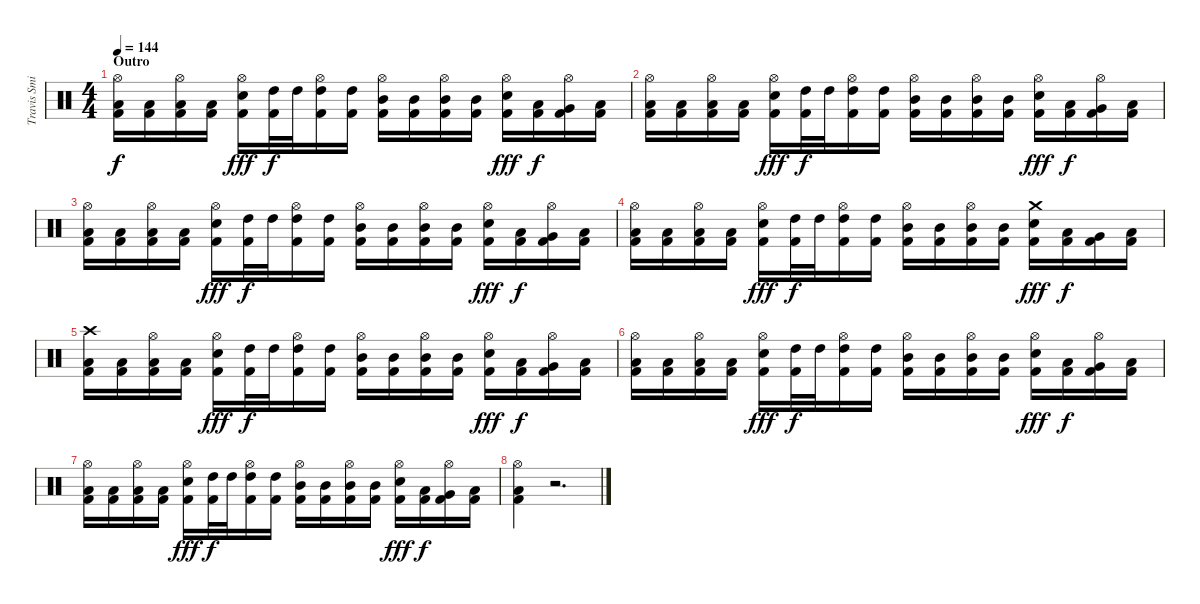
\track ("Travis Smith" "Travis Smi") {instrument percussion}
\staff {score}
\articulation defaults
\ts (4 4)
\section ("" "Outro")
\tempo 144
\clef neutral
\ks c
("Hi-Hat (open)" "Low Tom (hit)" "Kick (hit) 2").16{dy f} ("Low Tom (hit)" "Kick (hit) 2").16 ("Hi-Hat (open)" "Low Tom (hit)" "Kick (hit) 2").16 ("Low Tom (hit)" "Kick (hit) 2").16 ("Hi-Hat (open)" "Electric Snare (hit)" "Kick (hit) 2").16{dy fff} ("High Tom (hit)" "Kick (hit) 2").32{dy f} "High Tom (hit)".32 ("Hi-Hat (open)" "High Tom (hit)" "Kick (hit) 2").16 ("High Tom (hit)" "Kick (hit) 2").16 ("Hi-Hat (open)" "Mid Tom (hit)" "Kick (hit) 2").16 ("Mid Tom (hit)" "Kick (hit) 2").16 ("Hi-Hat (open)" "Mid Tom (hit)" "Kick (hit) 2").16 ("Mid Tom (hit)" "Kick (hit) 2").16 ("Hi-Hat (open)" "Electric Snare (hit)" "Kick (hit) 2").16{dy fff} ("Low Tom (hit)" "Kick (hit) 2").16{dy f} ("Hi-Hat (open)" "Very Low Tom (hit)" "Kick (hit) 2").16 ("Low Floor Tom (hit)" "Kick (hit) 2").16 |
("Hi-Hat (open)" "Low Tom (hit)" "Kick (hit) 2").16 ("Low Tom (hit)" "Kick (hit) 2").16 ("Hi-Hat (open)" "Low Tom (hit)" "Kick (hit) 2").16 ("Low Tom (hit)" "Kick (hit) 2").16 ("Hi-Hat (open)" "Electric Snare (hit)" "Kick (hit) 2").16{dy fff} ("High Tom (hit)" "Kick (hit) 2").32{dy f} "High Tom (hit)".32 ("Hi-Hat (open)" "High Tom (hit)" "Kick (hit) 2").16 ("High Tom (hit)" "Kick (hit) 2").16 ("Hi-Hat (open)" "Mid Tom (hit)" "Kick (hit) 2").16 ("Mid Tom (hit)" "Kick (hit) 2").16 ("Hi-Hat (open)" "Mid Tom (hit)" "Kick (hit) 2").16 ("Mid Tom (hit)" "Kick (hit) 2").16 ("Hi-Hat (open)" "Electric Snare (hit)" "Kick (hit) 2").16{dy fff} ("Low Tom (hit)" "Kick (hit) 2").16{dy f} ("Hi-Hat (open)" "Very Low Tom (hit)" "Kick (hit) 2").16 ("Low Floor Tom (hit)" "Kick (hit) 2").16 |
("Hi-Hat (open)" "Low Tom (hit)" "Kick (hit) 2").16 ("Low Tom (hit)" "Kick (hit) 2").16 ("Hi-Hat (open)" "Low Tom (hit)" "Kick (hit) 2").16 ("Low Tom (hit)" "Kick (hit) 2").16 ("Hi-Hat (open)" "Electric Snare (hit)" "Kick (hit) 2").16{dy fff} ("High Tom (hit)" "Kick (hit) 2").32{dy f} "High Tom (hit)".32 ("Hi-Hat (open)" "High Tom (hit)" "Kick (hit) 2").16 ("High Tom (hit)" "Kick (hit) 2").16 ("Hi-Hat (open)" "Mid Tom (hit)" "Kick (hit) 2").16 ("Mid Tom (hit)" "Kick (hit) 2").16 ("Hi-Hat (open)" "Mid Tom (hit)" "Kick (hit) 2").16 ("Mid Tom (hit)" "Kick (hit) 2").16 ("Hi-Hat (open)" "Electric Snare (hit)" "Kick (hit) 2").16{dy fff} ("Low Tom (hit)" "Kick (hit) 2").16{dy f} ("Hi-Hat (open)" "Very Low Tom (hit)" "Kick (hit) 2").16 ("Low Floor Tom (hit)" "Kick (hit) 2").16 |
("Hi-Hat (open)" "Low Tom (hit)" "Kick (hit) 2").16 ("Low Tom (hit)" "Kick (hit) 2").16 ("Hi-Hat (open)" "Low Tom (hit)" "Kick (hit) 2").16 ("Low Tom (hit)" "Kick (hit) 2").16 ("Hi-Hat (open)" "Electric Snare (hit)" "Kick (hit) 2").16{dy fff} ("High Tom (hit)" "Kick (hit) 2").32{dy f} "High Tom (hit)".32 ("Hi-Hat (open)" "High Tom (hit)" "Kick (hit) 2").16 ("High Tom (hit)" "Kick (hit) 2").16 ("Hi-Hat (open)" "Mid Tom (hit)" "Kick (hit) 2").16 ("Mid Tom (hit)" "Kick (hit) 2").16 ("Hi-Hat (open)" "Mid Tom (hit)" "Kick (hit) 2").16 ("Mid Tom (hit)" "Kick (hit) 2").16 ("Crash medium (hit)" "Electric Snare (hit)" "Kick (hit) 2").16{dy fff} ("Low Tom (hit)" "Kick (hit) 2").16{dy f} ("Very Low Tom (hit)" "Kick (hit) 2").16 ("Low Floor Tom (hit)" "Kick (hit) 2").16 |
("Crash high (hit)" "Low Tom (hit)" "Kick (hit) 2").16 ("Low Tom (hit)" "Kick (hit) 2").16 ("Hi-Hat (open)" "Low Tom (hit)" "Kick (hit) 2").16 ("Low Tom (hit)" "Kick (hit) 2").16 ("Hi-Hat (open)" "Electric Snare (hit)" "Kick (hit) 2").16{dy fff} ("High Tom (hit)" "Kick (hit) 2").32{dy f} "High Tom (hit)".32 ("Hi-Hat (open)" "High Tom (hit)" "Kick (hit) 2").16 ("High Tom (hit)" "Kick (hit) 2").16 ("Hi-Hat (open)" "Mid Tom (hit)" "Kick (hit) 2").16 ("Mid Tom (hit)" "Kick (hit) 2").16 ("Hi-Hat (open)" "Mid Tom (hit)" "Kick (hit) 2").16 ("Mid Tom (hit)" "Kick (hit) 2").16 ("Hi-Hat (open)" "Electric Snare (hit)" "Kick (hit) 2").16{dy fff} ("Low Tom (hit)" "Kick (hit) 2").16{dy f} ("Hi-Hat (open)" "Very Low Tom (hit)" "Kick (hit) 2").16 ("Low Floor Tom (hit)" "Kick (hit) 2").16 |
("Hi-Hat (open)" "Low Tom (hit)" "Kick (hit) 2").16 ("Low Tom (hit)" "Kick (hit) 2").16 ("Hi-Hat (open)" "Low Tom (hit)" "Kick (hit) 2").16 ("Low Tom (hit)" "Kick (hit) 2").16 ("Hi-Hat (open)" "Electric Snare (hit)" "Kick (hit) 2").16{dy fff} ("High Tom (hit)" "Kick (hit) 2").32{dy f} "High Tom (hit)".32 ("Hi-Hat (open)" "High Tom (hit)" "Kick (hit) 2").16 ("High Tom (hit)" "Kick (hit) 2").16 ("Hi-Hat (open)" "Mid Tom (hit)" "Kick (hit) 2").16 ("Mid Tom (hit)" "Kick (hit) 2").16 ("Hi-Hat (open)" "Mid Tom (hit)" "Kick (hit) 2").16 ("Mid Tom (hit)" "Kick (hit) 2").16 ("Hi-Hat (open)" "Electric Snare (hit)" "Kick (hit) 2").16{dy fff} ("Low Tom (hit)" "Kick (hit) 2").16{dy f} ("Hi-Hat (open)" "Very Low Tom (hit)" "Kick (hit) 2").16 ("Low Floor Tom (hit)" "Kick (hit) 2").16 |
("Hi-Hat (open)" "Low Tom (hit)" "Kick (hit) 2").16 ("Low Tom (hit)" "Kick (hit) 2").16 ("Hi-Hat (open)" "Low Tom (hit)" "Kick (hit) 2").16 ("Low Tom (hit)" "Kick (hit) 2").16 ("Hi-Hat (open)" "Electric Snare (hit)" "Kick (hit) 2").16{dy fff} ("High Tom (hit)" "Kick (hit) 2").32{dy f} "High Tom (hit)".32 ("Hi-Hat (open)" "High Tom (hit)" "Kick (hit) 2").16 ("High Tom (hit)" "Kick (hit) 2").16 ("Hi-Hat (open)" "Mid Tom (hit)" "Kick (hit) 2").16 ("Mid Tom (hit)" "Kick (hit) 2").16 ("Hi-Hat (open)" "Mid Tom (hit)" "Kick (hit) 2").16 ("Mid Tom (hit)" "Kick (hit) 2").16 ("Hi-Hat (open)" "Electric Snare (hit)" "Kick (hit) 2").16{dy fff} ("Low Tom (hit)" "Kick (hit) 2").16{dy f} ("Hi-Hat (open)" "Very Low Tom (hit)" "Kick (hit) 2").16 ("Low Floor Tom (hit)" "Kick (hit) 2").16 |
("Hi-Hat (open)" "Low Tom (hit)" "Kick (hit) 2").4 r.2{d}
